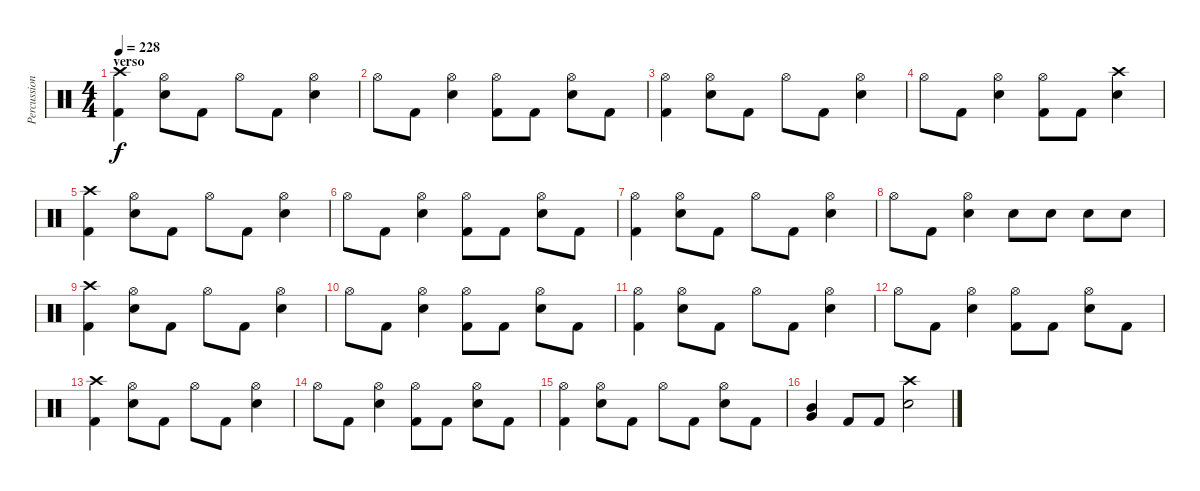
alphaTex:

\track ("Percussion" "Percussion") {instrument percussion}
\staff {score}
\articulation defaults
\ts (4 4)
\section ("" "verso")
\tempo 228
\clef neutral
\ks c
("Crash high (hit)" "Kick (hit) 2").4{dy f} ("Hi-Hat (open)" "Snare (hit) 2").8 "Kick (hit) 2".8 "Hi-Hat (open)".8 "Kick (hit) 2".8 ("Hi-Hat (open)" "Snare (hit) 2").4 |
"Hi-Hat (open)".8 "Kick (hit) 2".8 ("Hi-Hat (open)" "Snare (hit) 2").4 ("Hi-Hat (open)" "Kick (hit) 2").8 "Kick (hit) 2".8 ("Hi-Hat (open)" "Snare (hit) 2").8 "Kick (hit) 2".8 |
("Hi-Hat (open)" "Kick (hit) 2").4 ("Hi-Hat (open)" "Snare (hit) 2").8 "Kick (hit) 2".8 "Hi-Hat (open)".8 "Kick (hit) 2".8 ("Hi-Hat (open)" "Snare (hit) 2").4 |
"Hi-Hat (open)".8 "Kick (hit) 2".8 ("Hi-Hat (open)" "Snare (hit) 2").4 ("Hi-Hat (open)" "Kick (hit) 2").8 "Kick (hit) 2".8 ("Crash high (hit)" "Snare (hit) 2").4 |
("Crash high (hit)" "Kick (hit) 2").4 ("Hi-Hat (open)" "Snare (hit) 2").8 "Kick (hit) 2".8 "Hi-Hat (open)".8 "Kick (hit) 2".8 ("Hi-Hat (open)" "Snare (hit) 2").4 |
"Hi-Hat (open)".8 "Kick (hit) 2".8 ("Hi-Hat (open)" "Snare (hit) 2").4 ("Hi-Hat (open)" "Kick (hit) 2").8 "Kick (hit) 2".8 ("Hi-Hat (open)" "Snare (hit) 2").8 "Kick (hit) 2".8 |
("Hi-Hat (open)" "Kick (hit) 2").4 ("Hi-Hat (open)" "Snare (hit) 2").8 "Kick (hit) 2".8 "Hi-Hat (open)".8 "Kick (hit) 2".8 ("Hi-Hat (open)" "Snare (hit) 2").4 |
"Hi-Hat (open)".8 "Kick (hit) 2".8 ("Hi-Hat (open)" "Snare (hit) 2").4 "Snare (hit) 2".8 "Snare (hit) 2".8 "Snare (hit) 2".8 "Snare (hit) 2".8 |
("Crash high (hit)" "Kick (hit) 2").4 ("Hi-Hat (open)" "Snare (hit) 2").8 "Kick (hit) 2".8 "Hi-Hat (open)".8 "Kick (hit) 2".8 ("Hi-Hat (open)" "Snare (hit) 2").4 |
"Hi-Hat (open)".8 "Kick (hit) 2".8 ("Hi-Hat (open)" "Snare (hit) 2").4 ("Hi-Hat (open)" "Kick (hit) 2").8 "Kick (hit) 2".8 ("Hi-Hat (open)" "Snare (hit) 2").8 "Kick (hit) 2".8 |
("Hi-Hat (open)" "Kick (hit) 2").4 ("Hi-Hat (open)" "Snare (hit) 2").8 "Kick (hit) 2".8 "Hi-Hat (open)".8 "Kick (hit) 2".8 ("Hi-Hat (open)" "Snare (hit) 2").4 |
"Hi-Hat (open)".8 "Kick (hit) 2".8 ("Hi-Hat (open)" "Snare (hit) 2").4 ("Hi-Hat (open)" "Kick (hit) 2").8 "Kick (hit) 2".8 ("Hi-Hat (open)" "Snare (hit) 2").8 "Kick (hit) 2".8 |
("Crash high (hit)" "Kick (hit) 2").4 ("Hi-Hat (open)" "Snare (hit) 2").8 "Kick (hit) 2".8 "Hi-Hat (open)".8 "Kick (hit) 2".8 ("Hi-Hat (open)" "Snare (hit) 2").4 |
"Hi-Hat (open)".8 "Kick (hit) 2".8 ("Hi-Hat (open)" "Snare (hit) 2").4 ("Hi-Hat (open)" "Kick (hit) 2").8 "Kick (hit) 2".8 ("Hi-Hat (open)" "Snare (hit) 2").8 "Kick (hit) 2".8 |
("Hi-Hat (open)" "Kick (hit) 2").4 ("Hi-Hat (open)" "Snare (hit) 2").8 "Kick (hit) 2".8 "Hi-Hat (open)".8 "Kick (hit) 2".8 ("Hi-Hat (open)" "Snare (hit) 2").8 "Kick (hit) 2".8 |
("Mid Tom (hit)" "Very Low Tom (hit)").4 "Kick (hit) 2".8 "Kick (hit) 2".8 ("Crash high (hit)" "Snare (hit) 2").2
